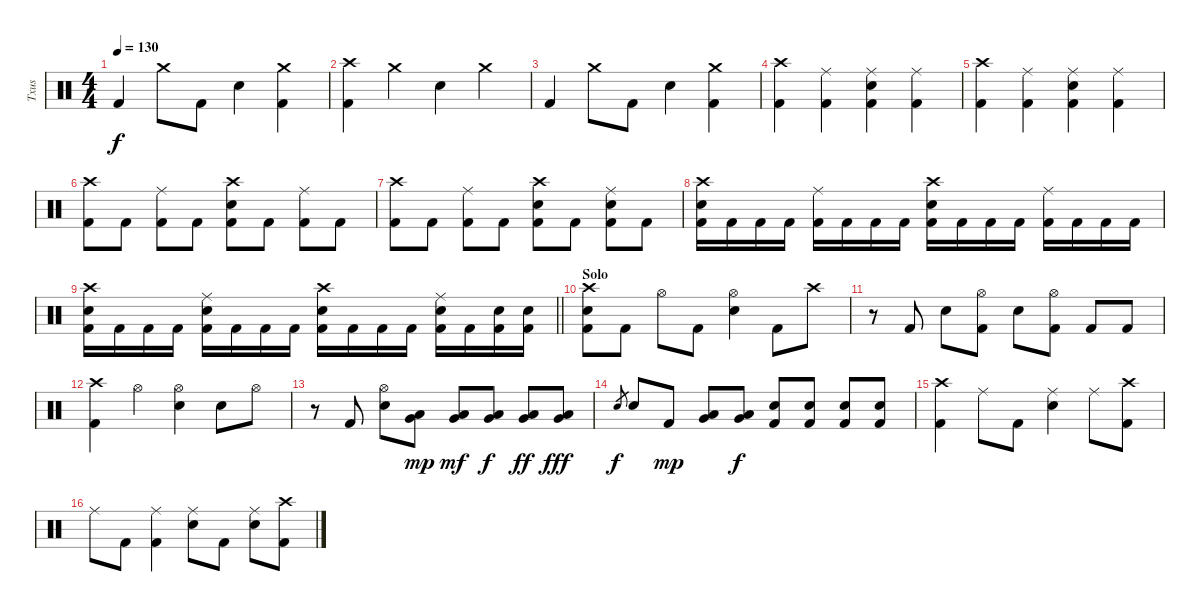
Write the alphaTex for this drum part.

\track ("Txus" "Txus") {instrument percussion}
\staff {score}
\articulation defaults
\ts (4 4)
\tempo 130
\clef neutral
\ks c "Kick (hit) 2".4{dy f} "Crash medium (hit)".8 "Kick (hit) 2".8 "Electric Snare (hit)".4
("Crash medium (hit)" "Kick (hit) 2").4 |
("Crash high (hit)" "Kick (hit) 2").4 "Crash medium (hit)".4 "Electric Snare (hit)".4 "Crash medium (hit)".4 |
"Kick (hit) 2".4 "Crash medium (hit)".8 "Kick (hit) 2".8 "Electric Snare (hit)".4 ("Crash medium (hit)" "Kick (hit) 2").4 |
("Crash high (hit)" "Kick (hit) 2").4 ("Ride (middle)" "Kick (hit) 2").4 ("Ride (middle)" "Electric Snare (hit)" "Kick (hit) 2").4 ("Ride (middle)" "Kick (hit) 2").4 |
("Crash high (hit)" "Kick (hit) 2").4 ("Ride (middle)" "Kick (hit) 2").4 ("Ride (middle)" "Electric Snare (hit)" "Kick (hit) 2").4 ("Ride (middle)" "Kick (hit) 2").4 |
("Crash high (hit)" "Kick (hit) 2").8 "Kick (hit) 2".8 ("Ride (middle)" "Kick (hit) 2").8 "Kick (hit) 2".8 ("Crash high (hit)" "Electric Snare (hit)" "Kick (hit) 2").8 "Kick (hit) 2".8 ("Ride (middle)" "Kick (hit) 2").8 "Kick (hit) 2".8 |
("Crash high (hit)" "Kick (hit) 2").8 "Kick (hit) 2".8 ("Ride (middle)" "Kick (hit) 2").8 "Kick (hit) 2".8 ("Crash high (hit)" "Electric Snare (hit)" "Kick (hit) 2").8 "Kick (hit) 2".8 ("Ride (middle)" "Electric Snare (hit)" "Kick (hit) 2").8 "Kick (hit) 2".8 |
("Crash high (hit)" "Electric Snare (hit)" "Kick (hit) 2").16 "Kick (hit) 2".16 "Kick (hit) 2".16 "Kick (hit) 2".16 ("Ride (middle)" "Kick (hit) 2").16 "Kick (hit) 2".16 "Kick (hit) 2".16 "Kick (hit) 2".16 ("Crash high (hit)" "Electric Snare (hit)" "Kick (hit) 2").16 "Kick (hit) 2".16 "Kick (hit) 2".16 "Kick (hit) 2".16 ("Ride (middle)" "Kick (hit) 2").16 "Kick (hit) 2".16 "Kick (hit) 2".16 "Kick (hit) 2".16 |
\barLineRight lightlight
("Crash high (hit)" "Electric Snare (hit)" "Kick (hit) 2").16 "Kick (hit) 2".16 "Kick (hit) 2".16 "Kick (hit) 2".16 ("Ride (middle)" "Electric Snare (hit)" "Kick (hit) 2").16 "Kick (hit) 2".16 "Kick (hit) 2".16 "Kick (hit) 2".16 ("Crash high (hit)" "Electric Snare (hit)" "Kick (hit) 2").16 "Kick (hit) 2".16 "Kick (hit) 2".16 "Kick (hit) 2".16 ("Ride (middle)" "Electric Snare (hit)" "Kick (hit) 2").16 "Kick (hit) 2".16 ("Electric Snare (hit)" "Kick (hit) 2").16 ("Electric Snare (hit)" "Kick (hit) 2").16 |
\section ("" "Solo")
("Crash high (hit)" "Electric Snare (hit)" "Kick (hit) 2").8 "Kick (hit) 2".8 "Hi-Hat (open)".8 "Kick (hit) 2".8 ("Hi-Hat (open)" "Electric Snare (hit)").4 "Kick (hit) 2".8 "Crash high (hit)".8 |
r.8 "Kick (hit) 2".8 "Electric Snare (hit)".8 ("Hi-Hat (open)" "Kick (hit) 2").8 "Electric Snare (hit)".8 ("Hi-Hat (open)" "Kick (hit) 2").8 "Kick (hit) 2".8 "Kick (hit) 2".8 |
("Crash high (hit)" "Kick (hit) 2").4 "Hi-Hat (open)".4 ("Hi-Hat (open)" "Electric Snare (hit)").4 "Electric Snare (hit)".8 "Hi-Hat (open)".8 |
r.8 "Kick (hit) 2".8 ("Hi-Hat (open)" "Electric Snare (hit)").8 ("Low Tom (hit)" "Very Low Tom (hit)").8{dy mp} ("Low Tom (hit)" "Very Low Tom (hit)").8{dy mf} ("Low Tom (hit)" "Very Low Tom (hit)").8{dy f} ("Low Tom (hit)" "Very Low Tom (hit)").8{dy ff} ("Low Tom (hit)" "Very Low Tom (hit)").8{dy fff} |
"Electric Snare (hit)".8{gr dy f} "Electric Snare (hit)".8 "Kick (hit) 2".8{dy mp} ("Low Tom (hit)" "Very Low Tom (hit)").8 ("Low Tom (hit)" "Very Low Tom (hit)").8{dy f} ("Electric Snare (hit)" "Kick (hit) 2").8 ("Electric Snare (hit)" "Kick (hit) 2").8 ("Electric Snare (hit)" "Kick (hit) 2").8 ("Electric Snare (hit)" "Kick (hit) 2").8 |
("Crash high (hit)" "Kick (hit) 2").4 "Ride (middle)".8 "Kick (hit) 2".8 ("Ride (middle)" "Electric Snare (hit)").4 "Ride (middle)".8 ("Crash high (hit)" "Kick (hit) 2").8 |
"Ride (middle)".8 "Kick (hit) 2".8 ("Ride (middle)" "Kick (hit) 2").4 ("Ride (middle)" "Electric Snare (hit)").8 "Kick (hit) 2".8 ("Ride (middle)" "Electric Snare (hit)").8 ("Crash high (hit)" "Kick (hit) 2").8
